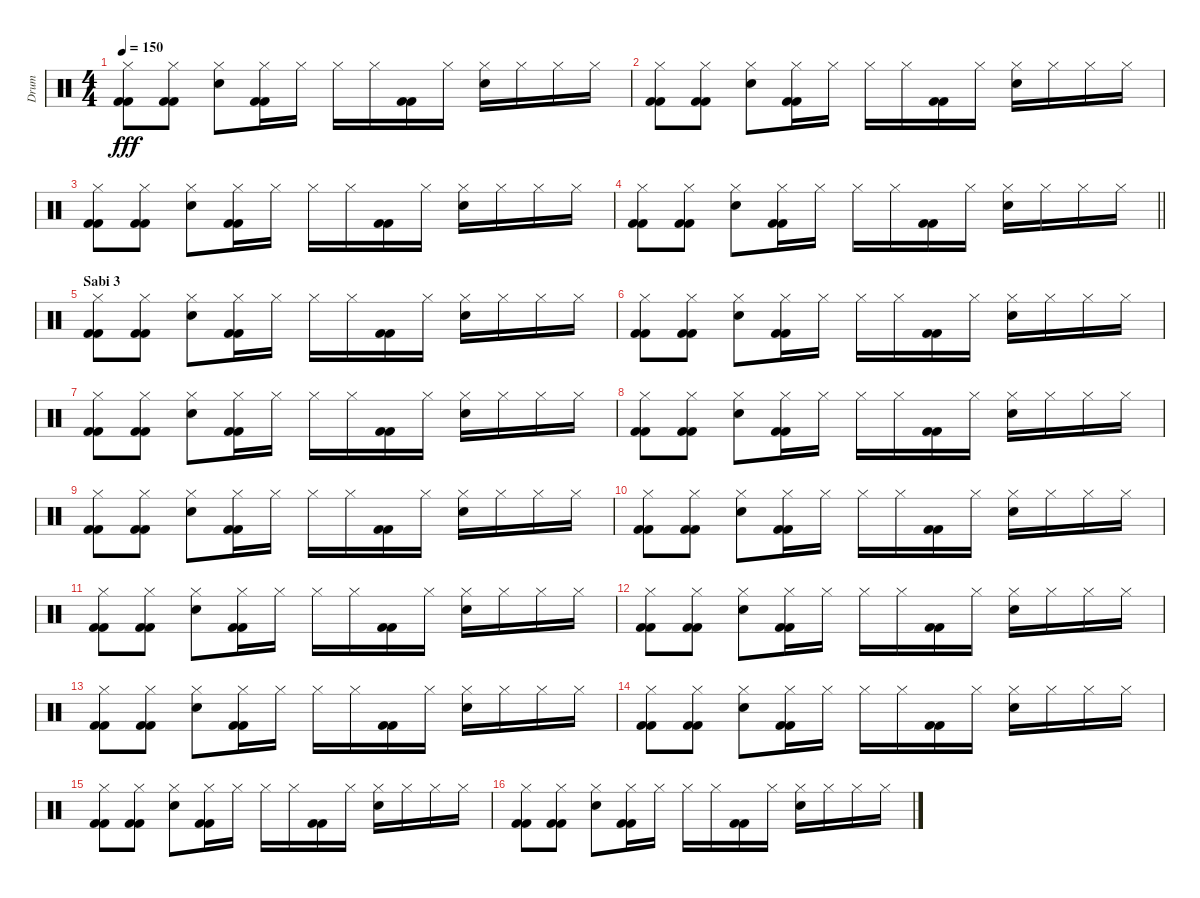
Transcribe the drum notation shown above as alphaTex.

\track ("Drum" "Drum") {instrument percussion}
\staff {score}
\articulation defaults
\ts (4 4)
\tempo 150
\clef neutral
\ks c
("Hi-Hat (closed)" "Kick (hit) 2" "Kick (hit) 2").8{dy fff} ("Hi-Hat (closed)" "Kick (hit) 2" "Kick (hit) 2").8 ("Hi-Hat (closed)" "Electric Snare (hit)").8 ("Hi-Hat (closed)" "Kick (hit) 2" "Kick (hit) 2").16 "Hi-Hat (closed)".16 "Hi-Hat (closed)".16 "Hi-Hat (closed)".16 ("Kick (hit) 2" "Kick (hit) 2").16 "Hi-Hat (closed)".16 ("Hi-Hat (closed)" "Electric Snare (hit)").16 "Hi-Hat (closed)".16 "Hi-Hat (closed)".16 "Hi-Hat (closed)".16 |
("Hi-Hat (closed)" "Kick (hit) 2" "Kick (hit) 2").8 ("Hi-Hat (closed)" "Kick (hit) 2" "Kick (hit) 2").8 ("Hi-Hat (closed)" "Electric Snare (hit)").8 ("Hi-Hat (closed)" "Kick (hit) 2" "Kick (hit) 2").16 "Hi-Hat (closed)".16 "Hi-Hat (closed)".16 "Hi-Hat (closed)".16 ("Kick (hit) 2" "Kick (hit) 2").16 "Hi-Hat (closed)".16 ("Hi-Hat (closed)" "Electric Snare (hit)").16 "Hi-Hat (closed)".16 "Hi-Hat (closed)".16 "Hi-Hat (closed)".16 |
("Hi-Hat (closed)" "Kick (hit) 2" "Kick (hit) 2").8 ("Hi-Hat (closed)" "Kick (hit) 2" "Kick (hit) 2").8 ("Hi-Hat (closed)" "Electric Snare (hit)").8 ("Hi-Hat (closed)" "Kick (hit) 2" "Kick (hit) 2").16 "Hi-Hat (closed)".16 "Hi-Hat (closed)".16 "Hi-Hat (closed)".16 ("Kick (hit) 2" "Kick (hit) 2").16 "Hi-Hat (closed)".16 ("Hi-Hat (closed)" "Electric Snare (hit)").16 "Hi-Hat (closed)".16 "Hi-Hat (closed)".16 "Hi-Hat (closed)".16 |
\barLineRight lightlight
("Hi-Hat (closed)" "Kick (hit) 2" "Kick (hit) 2").8 ("Hi-Hat (closed)" "Kick (hit) 2" "Kick (hit) 2").8 ("Hi-Hat (closed)" "Electric Snare (hit)").8 ("Hi-Hat (closed)" "Kick (hit) 2" "Kick (hit) 2").16 "Hi-Hat (closed)".16 "Hi-Hat (closed)".16 "Hi-Hat (closed)".16 ("Kick (hit) 2" "Kick (hit) 2").16 "Hi-Hat (closed)".16 ("Hi-Hat (closed)" "Electric Snare (hit)").16 "Hi-Hat (closed)".16 "Hi-Hat (closed)".16 "Hi-Hat (closed)".16 |
\section ("" "Sabi 3")
("Hi-Hat (closed)" "Kick (hit) 2" "Kick (hit) 2").8 ("Hi-Hat (closed)" "Kick (hit) 2" "Kick (hit) 2").8 ("Hi-Hat (closed)" "Electric Snare (hit)").8 ("Hi-Hat (closed)" "Kick (hit) 2" "Kick (hit) 2").16 "Hi-Hat (closed)".16 "Hi-Hat (closed)".16 "Hi-Hat (closed)".16 ("Kick (hit) 2" "Kick (hit) 2").16 "Hi-Hat (closed)".16 ("Hi-Hat (closed)" "Electric Snare (hit)").16 "Hi-Hat (closed)".16 "Hi-Hat (closed)".16 "Hi-Hat (closed)".16 |
("Hi-Hat (closed)" "Kick (hit) 2" "Kick (hit) 2").8 ("Hi-Hat (closed)" "Kick (hit) 2" "Kick (hit) 2").8 ("Hi-Hat (closed)" "Electric Snare (hit)").8 ("Hi-Hat (closed)" "Kick (hit) 2" "Kick (hit) 2").16 "Hi-Hat (closed)".16 "Hi-Hat (closed)".16 "Hi-Hat (closed)".16 ("Kick (hit) 2" "Kick (hit) 2").16 "Hi-Hat (closed)".16 ("Hi-Hat (closed)" "Electric Snare (hit)").16 "Hi-Hat (closed)".16 "Hi-Hat (closed)".16 "Hi-Hat (closed)".16 |
("Hi-Hat (closed)" "Kick (hit) 2" "Kick (hit) 2").8 ("Hi-Hat (closed)" "Kick (hit) 2" "Kick (hit) 2").8 ("Hi-Hat (closed)" "Electric Snare (hit)").8 ("Hi-Hat (closed)" "Kick (hit) 2" "Kick (hit) 2").16 "Hi-Hat (closed)".16 "Hi-Hat (closed)".16 "Hi-Hat (closed)".16 ("Kick (hit) 2" "Kick (hit) 2").16 "Hi-Hat (closed)".16 ("Hi-Hat (closed)" "Electric Snare (hit)").16 "Hi-Hat (closed)".16 "Hi-Hat (closed)".16 "Hi-Hat (closed)".16 |
("Hi-Hat (closed)" "Kick (hit) 2" "Kick (hit) 2").8 ("Hi-Hat (closed)" "Kick (hit) 2" "Kick (hit) 2").8 ("Hi-Hat (closed)" "Electric Snare (hit)").8 ("Hi-Hat (closed)" "Kick (hit) 2" "Kick (hit) 2").16 "Hi-Hat (closed)".16 "Hi-Hat (closed)".16 "Hi-Hat (closed)".16 ("Kick (hit) 2" "Kick (hit) 2").16 "Hi-Hat (closed)".16 ("Hi-Hat (closed)" "Electric Snare (hit)").16 "Hi-Hat (closed)".16 "Hi-Hat (closed)".16 "Hi-Hat (closed)".16 |
("Hi-Hat (closed)" "Kick (hit) 2" "Kick (hit) 2").8 ("Hi-Hat (closed)" "Kick (hit) 2" "Kick (hit) 2").8 ("Hi-Hat (closed)" "Electric Snare (hit)").8 ("Hi-Hat (closed)" "Kick (hit) 2" "Kick (hit) 2").16 "Hi-Hat (closed)".16 "Hi-Hat (closed)".16 "Hi-Hat (closed)".16 ("Kick (hit) 2" "Kick (hit) 2").16 "Hi-Hat (closed)".16 ("Hi-Hat (closed)" "Electric Snare (hit)").16 "Hi-Hat (closed)".16 "Hi-Hat (closed)".16 "Hi-Hat (closed)".16 |
("Hi-Hat (closed)" "Kick (hit) 2" "Kick (hit) 2").8 ("Hi-Hat (closed)" "Kick (hit) 2" "Kick (hit) 2").8 ("Hi-Hat (closed)" "Electric Snare (hit)").8 ("Hi-Hat (closed)" "Kick (hit) 2" "Kick (hit) 2").16 "Hi-Hat (closed)".16 "Hi-Hat (closed)".16 "Hi-Hat (closed)".16 ("Kick (hit) 2" "Kick (hit) 2").16 "Hi-Hat (closed)".16 ("Hi-Hat (closed)" "Electric Snare (hit)").16 "Hi-Hat (closed)".16 "Hi-Hat (closed)".16 "Hi-Hat (closed)".16 |
("Hi-Hat (closed)" "Kick (hit) 2" "Kick (hit) 2").8 ("Hi-Hat (closed)" "Kick (hit) 2" "Kick (hit) 2").8 ("Hi-Hat (closed)" "Electric Snare (hit)").8 ("Hi-Hat (closed)" "Kick (hit) 2" "Kick (hit) 2").16 "Hi-Hat (closed)".16 "Hi-Hat (closed)".16 "Hi-Hat (closed)".16 ("Kick (hit) 2" "Kick (hit) 2").16 "Hi-Hat (closed)".16 ("Hi-Hat (closed)" "Electric Snare (hit)").16 "Hi-Hat (closed)".16 "Hi-Hat (closed)".16 "Hi-Hat (closed)".16 |
("Hi-Hat (closed)" "Kick (hit) 2" "Kick (hit) 2").8 ("Hi-Hat (closed)" "Kick (hit) 2" "Kick (hit) 2").8 ("Hi-Hat (closed)" "Electric Snare (hit)").8 ("Hi-Hat (closed)" "Kick (hit) 2" "Kick (hit) 2").16 "Hi-Hat (closed)".16 "Hi-Hat (closed)".16 "Hi-Hat (closed)".16 ("Kick (hit) 2" "Kick (hit) 2").16 "Hi-Hat (closed)".16 ("Hi-Hat (closed)" "Electric Snare (hit)").16 "Hi-Hat (closed)".16 "Hi-Hat (closed)".16 "Hi-Hat (closed)".16 |
("Hi-Hat (closed)" "Kick (hit) 2" "Kick (hit) 2").8 ("Hi-Hat (closed)" "Kick (hit) 2" "Kick (hit) 2").8 ("Hi-Hat (closed)" "Electric Snare (hit)").8 ("Hi-Hat (closed)" "Kick (hit) 2" "Kick (hit) 2").16 "Hi-Hat (closed)".16 "Hi-Hat (closed)".16 "Hi-Hat (closed)".16 ("Kick (hit) 2" "Kick (hit) 2").16 "Hi-Hat (closed)".16 ("Hi-Hat (closed)" "Electric Snare (hit)").16 "Hi-Hat (closed)".16 "Hi-Hat (closed)".16 "Hi-Hat (closed)".16 |
("Hi-Hat (closed)" "Kick (hit) 2" "Kick (hit) 2").8 ("Hi-Hat (closed)" "Kick (hit) 2" "Kick (hit) 2").8 ("Hi-Hat (closed)" "Electric Snare (hit)").8 ("Hi-Hat (closed)" "Kick (hit) 2" "Kick (hit) 2").16 "Hi-Hat (closed)".16 "Hi-Hat (closed)".16 "Hi-Hat (closed)".16 ("Kick (hit) 2" "Kick (hit) 2").16 "Hi-Hat (closed)".16 ("Hi-Hat (closed)" "Electric Snare (hit)").16 "Hi-Hat (closed)".16 "Hi-Hat (closed)".16 "Hi-Hat (closed)".16 |
("Hi-Hat (closed)" "Kick (hit) 2" "Kick (hit) 2").8 ("Hi-Hat (closed)" "Kick (hit) 2" "Kick (hit) 2").8 ("Hi-Hat (closed)" "Electric Snare (hit)").8 ("Hi-Hat (closed)" "Kick (hit) 2" "Kick (hit) 2").16 "Hi-Hat (closed)".16 "Hi-Hat (closed)".16 "Hi-Hat (closed)".16 ("Kick (hit) 2" "Kick (hit) 2").16 "Hi-Hat (closed)".16 ("Hi-Hat (closed)" "Electric Snare (hit)").16 "Hi-Hat (closed)".16 "Hi-Hat (closed)".16 "Hi-Hat (closed)".16 |
("Hi-Hat (closed)" "Kick (hit) 2" "Kick (hit) 2").8 ("Hi-Hat (closed)" "Kick (hit) 2" "Kick (hit) 2").8 ("Hi-Hat (closed)" "Electric Snare (hit)").8 ("Hi-Hat (closed)" "Kick (hit) 2" "Kick (hit) 2").16 "Hi-Hat (closed)".16 "Hi-Hat (closed)".16 "Hi-Hat (closed)".16 ("Kick (hit) 2" "Kick (hit) 2").16 "Hi-Hat (closed)".16 ("Hi-Hat (closed)" "Electric Snare (hit)").16 "Hi-Hat (closed)".16 "Hi-Hat (closed)".16 "Hi-Hat (closed)".16
